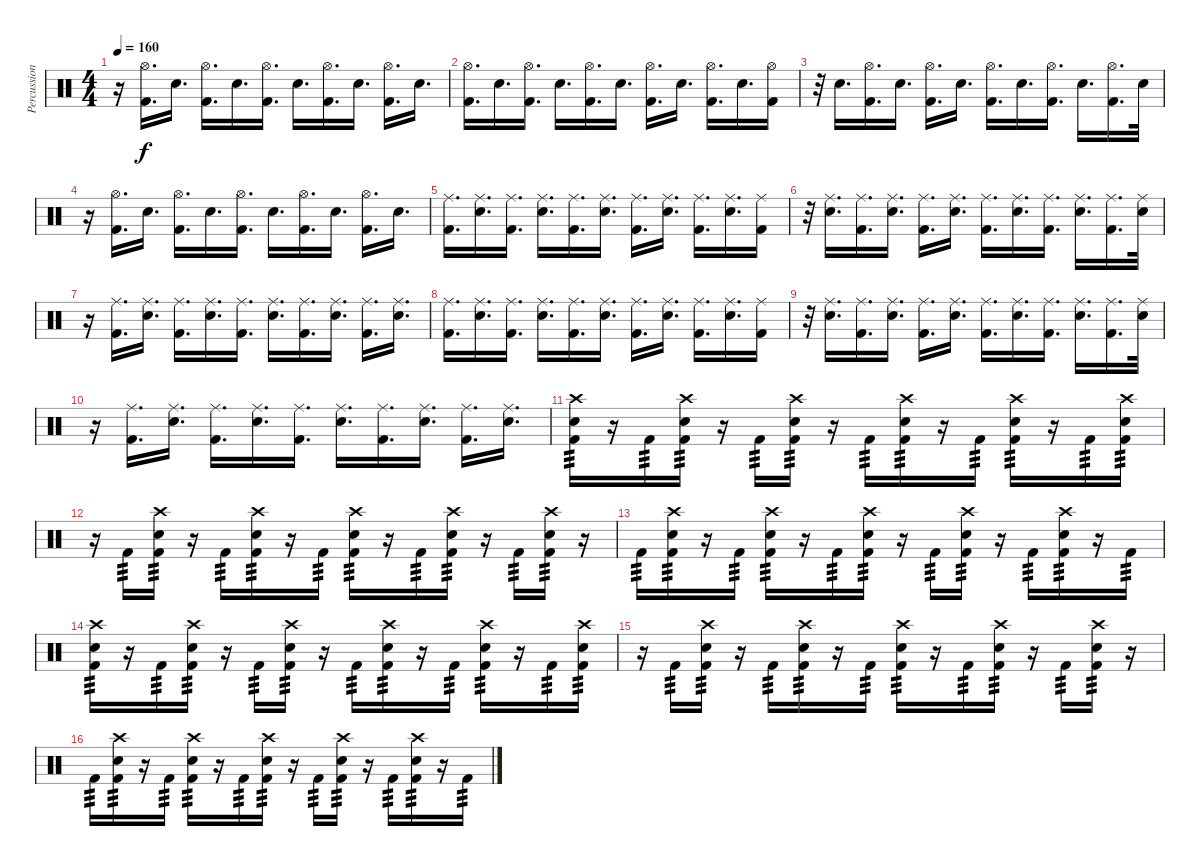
\track ("Percussion" "Percussion") {instrument percussion}
\staff {score}
\articulation defaults
\ts (4 4)
\tempo 160
\clef neutral
\ks c
r.16{dy f} ("Hi-Hat (open)" "Kick (hit) 2").16{d} "Electric Snare (hit)".16{d} ("Hi-Hat (open)" "Kick (hit) 2").16{d} "Electric Snare (hit)".16{d} ("Hi-Hat (open)" "Kick (hit) 2").16{d} "Electric Snare (hit)".16{d} ("Hi-Hat (open)" "Kick (hit) 2").16{d} "Electric Snare (hit)".16{d} ("Hi-Hat (open)" "Kick (hit) 2").16{d} "Electric Snare (hit)".16{d} |
("Hi-Hat (open)" "Kick (hit) 2").16{d} "Electric Snare (hit)".16{d} ("Hi-Hat (open)" "Kick (hit) 2").16{d} "Electric Snare (hit)".16{d} ("Hi-Hat (open)" "Kick (hit) 2").16{d} "Electric Snare (hit)".16{d} ("Hi-Hat (open)" "Kick (hit) 2").16{d} "Electric Snare (hit)".16{d} ("Hi-Hat (open)" "Kick (hit) 2").16{d} "Electric Snare (hit)".16{d} ("Hi-Hat (open)" "Kick (hit) 2").16 |
r.32 "Electric Snare (hit)".16{d} ("Hi-Hat (open)" "Kick (hit) 2").16{d} "Electric Snare (hit)".16{d} ("Hi-Hat (open)" "Kick (hit) 2").16{d} "Electric Snare (hit)".16{d} ("Hi-Hat (open)" "Kick (hit) 2").16{d} "Electric Snare (hit)".16{d} ("Hi-Hat (open)" "Kick (hit) 2").16{d} "Electric Snare (hit)".16{d} ("Hi-Hat (open)" "Kick (hit) 2").16{d} "Electric Snare (hit)".32 |
r.16 ("Hi-Hat (open)" "Kick (hit) 2").16{d} "Electric Snare (hit)".16{d} ("Hi-Hat (open)" "Kick (hit) 2").16{d} "Electric Snare (hit)".16{d} ("Hi-Hat (open)" "Kick (hit) 2").16{d} "Electric Snare (hit)".16{d} ("Hi-Hat (open)" "Kick (hit) 2").16{d} "Electric Snare (hit)".16{d} ("Hi-Hat (open)" "Kick (hit) 2").16{d} "Electric Snare (hit)".16{d} |
("Ride (middle)" "Kick (hit) 2").16{d} ("Ride (middle)" "Electric Snare (hit)").16{d} ("Ride (middle)" "Kick (hit) 2").16{d} ("Ride (middle)" "Electric Snare (hit)").16{d} ("Ride (middle)" "Kick (hit) 2").16{d} ("Ride (middle)" "Electric Snare (hit)").16{d} ("Ride (middle)" "Kick (hit) 2").16{d} ("Ride (middle)" "Electric Snare (hit)").16{d} ("Ride (middle)" "Kick (hit) 2").16{d} ("Ride (middle)" "Electric Snare (hit)").16{d} ("Ride (middle)" "Kick (hit) 2").16 |
r.32 ("Ride (middle)" "Electric Snare (hit)").16{d} ("Ride (middle)" "Kick (hit) 2").16{d} ("Ride (middle)" "Electric Snare (hit)").16{d} ("Ride (middle)" "Kick (hit) 2").16{d} ("Ride (middle)" "Electric Snare (hit)").16{d} ("Ride (middle)" "Kick (hit) 2").16{d} ("Ride (middle)" "Electric Snare (hit)").16{d} ("Ride (middle)" "Kick (hit) 2").16{d} ("Ride (middle)" "Electric Snare (hit)").16{d} ("Ride (middle)" "Kick (hit) 2").16{d} ("Ride (middle)" "Electric Snare (hit)").32 |
r.16 ("Ride (middle)" "Kick (hit) 2").16{d} ("Ride (middle)" "Electric Snare (hit)").16{d} ("Ride (middle)" "Kick (hit) 2").16{d} ("Ride (middle)" "Electric Snare (hit)").16{d} ("Ride (middle)" "Kick (hit) 2").16{d} ("Ride (middle)" "Electric Snare (hit)").16{d} ("Ride (middle)" "Kick (hit) 2").16{d} ("Ride (middle)" "Electric Snare (hit)").16{d} ("Ride (middle)" "Kick (hit) 2").16{d} ("Ride (middle)" "Electric Snare (hit)").16{d} |
("Ride (middle)" "Kick (hit) 2").16{d} ("Ride (middle)" "Electric Snare (hit)").16{d} ("Ride (middle)" "Kick (hit) 2").16{d} ("Ride (middle)" "Electric Snare (hit)").16{d} ("Ride (middle)" "Kick (hit) 2").16{d} ("Ride (middle)" "Electric Snare (hit)").16{d} ("Ride (middle)" "Kick (hit) 2").16{d} ("Ride (middle)" "Electric Snare (hit)").16{d} ("Ride (middle)" "Kick (hit) 2").16{d} ("Ride (middle)" "Electric Snare (hit)").16{d} ("Ride (middle)" "Kick (hit) 2").16 |
r.32 ("Ride (middle)" "Electric Snare (hit)").16{d} ("Ride (middle)" "Kick (hit) 2").16{d} ("Ride (middle)" "Electric Snare (hit)").16{d} ("Ride (middle)" "Kick (hit) 2").16{d} ("Ride (middle)" "Electric Snare (hit)").16{d} ("Ride (middle)" "Kick (hit) 2").16{d} ("Ride (middle)" "Electric Snare (hit)").16{d} ("Ride (middle)" "Kick (hit) 2").16{d} ("Ride (middle)" "Electric Snare (hit)").16{d} ("Ride (middle)" "Kick (hit) 2").16{d} ("Ride (middle)" "Electric Snare (hit)").32 |
r.16 ("Ride (middle)" "Kick (hit) 2").16{d} ("Ride (middle)" "Electric Snare (hit)").16{d} ("Ride (middle)" "Kick (hit) 2").16{d} ("Ride (middle)" "Electric Snare (hit)").16{d} ("Ride (middle)" "Kick (hit) 2").16{d} ("Ride (middle)" "Electric Snare (hit)").16{d} ("Ride (middle)" "Kick (hit) 2").16{d} ("Ride (middle)" "Electric Snare (hit)").16{d} ("Ride (middle)" "Kick (hit) 2").16{d} ("Ride (middle)" "Electric Snare (hit)").16{d} |
("Crash high (hit)" "Electric Snare (hit)" "Kick (hit) 2").16{tp 3} r.16 "Kick (hit) 2".16{tp 3} ("Crash high (hit)" "Electric Snare (hit)" "Kick (hit) 2").16{tp 3} r.16 "Kick (hit) 2".16{tp 3} ("Crash high (hit)" "Electric Snare (hit)" "Kick (hit) 2").16{tp 3} r.16 "Kick (hit) 2".16{tp 3} ("Crash high (hit)" "Electric Snare (hit)" "Kick (hit) 2").16{tp 3} r.16 "Kick (hit) 2".16{tp 3} ("Crash high (hit)" "Electric Snare (hit)" "Kick (hit) 2").16{tp 3} r.16 "Kick (hit) 2".16{tp 3} ("Crash high (hit)" "Electric Snare (hit)" "Kick (hit) 2").16{tp 3} |
r.16 "Kick (hit) 2".16{tp 3} ("Crash high (hit)" "Electric Snare (hit)" "Kick (hit) 2").16{tp 3} r.16 "Kick (hit) 2".16{tp 3} ("Crash high (hit)" "Electric Snare (hit)" "Kick (hit) 2").16{tp 3} r.16 "Kick (hit) 2".16{tp 3} ("Crash high (hit)" "Electric Snare (hit)" "Kick (hit) 2").16{tp 3} r.16 "Kick (hit) 2".16{tp 3} ("Crash high (hit)" "Electric Snare (hit)" "Kick (hit) 2").16{tp 3} r.16 "Kick (hit) 2".16{tp 3} ("Crash high (hit)" "Electric Snare (hit)" "Kick (hit) 2").16{tp 3} r.16 |
"Kick (hit) 2".16{tp 3} ("Crash high (hit)" "Electric Snare (hit)" "Kick (hit) 2").16{tp 3} r.16 "Kick (hit) 2".16{tp 3} ("Crash high (hit)" "Electric Snare (hit)" "Kick (hit) 2").16{tp 3} r.16 "Kick (hit) 2".16{tp 3} ("Crash high (hit)" "Electric Snare (hit)" "Kick (hit) 2").16{tp 3} r.16 "Kick (hit) 2".16{tp 3} ("Crash high (hit)" "Electric Snare (hit)" "Kick (hit) 2").16{tp 3} r.16 "Kick (hit) 2".16{tp 3} ("Crash high (hit)" "Electric Snare (hit)" "Kick (hit) 2").16{tp 3} r.16 "Kick (hit) 2".16{tp 3} |
("Crash high (hit)" "Electric Snare (hit)" "Kick (hit) 2").16{tp 3} r.16 "Kick (hit) 2".16{tp 3} ("Crash high (hit)" "Electric Snare (hit)" "Kick (hit) 2").16{tp 3} r.16 "Kick (hit) 2".16{tp 3} ("Crash high (hit)" "Electric Snare (hit)" "Kick (hit) 2").16{tp 3} r.16 "Kick (hit) 2".16{tp 3} ("Crash high (hit)" "Electric Snare (hit)" "Kick (hit) 2").16{tp 3} r.16 "Kick (hit) 2".16{tp 3} ("Crash high (hit)" "Electric Snare (hit)" "Kick (hit) 2").16{tp 3} r.16 "Kick (hit) 2".16{tp 3} ("Crash high (hit)" "Electric Snare (hit)" "Kick (hit) 2").16{tp 3} |
r.16 "Kick (hit) 2".16{tp 3} ("Crash high (hit)" "Electric Snare (hit)" "Kick (hit) 2").16{tp 3} r.16 "Kick (hit) 2".16{tp 3} ("Crash high (hit)" "Electric Snare (hit)" "Kick (hit) 2").16{tp 3} r.16 "Kick (hit) 2".16{tp 3} ("Crash high (hit)" "Electric Snare (hit)" "Kick (hit) 2").16{tp 3} r.16 "Kick (hit) 2".16{tp 3} ("Crash high (hit)" "Electric Snare (hit)" "Kick (hit) 2").16{tp 3} r.16 "Kick (hit) 2".16{tp 3} ("Crash high (hit)" "Electric Snare (hit)" "Kick (hit) 2").16{tp 3} r.16 |
"Kick (hit) 2".16{tp 3} ("Crash high (hit)" "Electric Snare (hit)" "Kick (hit) 2").16{tp 3} r.16 "Kick (hit) 2".16{tp 3} ("Crash high (hit)" "Electric Snare (hit)" "Kick (hit) 2").16{tp 3} r.16 "Kick (hit) 2".16{tp 3} ("Crash high (hit)" "Electric Snare (hit)" "Kick (hit) 2").16{tp 3} r.16 "Kick (hit) 2".16{tp 3} ("Crash high (hit)" "Electric Snare (hit)" "Kick (hit) 2").16{tp 3} r.16 "Kick (hit) 2".16{tp 3} ("Crash high (hit)" "Electric Snare (hit)" "Kick (hit) 2").16{tp 3} r.16 "Kick (hit) 2".16{tp 3}
